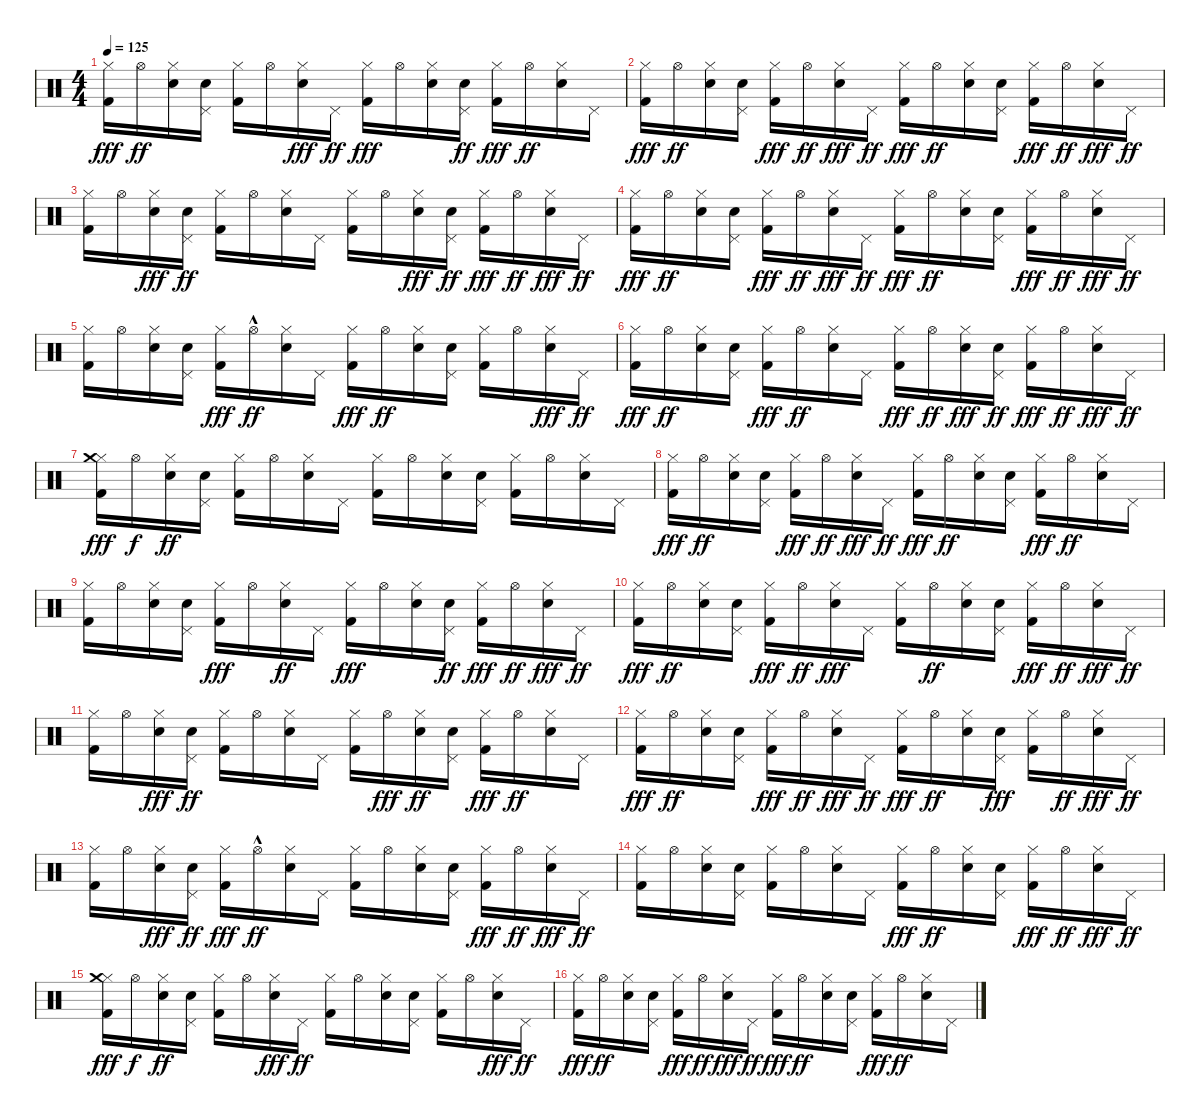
\track "" {instrument percussion}
\staff {score}
\articulation defaults
\ts (4 4)
\tempo 125
\clef neutral
\ks c
("Hi-Hat (closed)" "Kick (hit) 2").16{dy fff} "Hi-Hat (open)".16{dy ff} ("Hi-Hat (closed)" "Electric Snare (hit)").16 ("Electric Snare (hit)" "Pedal Hi-Hat (hit)").16 ("Kick (hit) 2" "Hi-Hat (closed)").16 "Hi-Hat (open)".16 ("Hi-Hat (closed)" "Electric Snare (hit)").16{dy fff} "Pedal Hi-Hat (hit)".16{dy ff} ("Kick (hit) 2" "Hi-Hat (closed)").16{dy fff} "Hi-Hat (open)".16 ("Hi-Hat (closed)" "Electric Snare (hit)").16 ("Pedal Hi-Hat (hit)" "Electric Snare (hit)").16{dy ff} ("Hi-Hat (closed)" "Kick (hit) 2").16{dy fff} "Hi-Hat (open)".16{dy ff} ("Electric Snare (hit)" "Hi-Hat (closed)").16 "Pedal Hi-Hat (hit)".16 |
("Hi-Hat (closed)" "Kick (hit) 2").16{dy fff} "Hi-Hat (open)".16{dy ff} ("Hi-Hat (closed)" "Electric Snare (hit)").16 ("Pedal Hi-Hat (hit)" "Electric Snare (hit)").16 ("Kick (hit) 2" "Hi-Hat (closed)").16{dy fff} "Hi-Hat (open)".16{dy ff} ("Hi-Hat (closed)" "Electric Snare (hit)").16{dy fff} "Pedal Hi-Hat (hit)".16{dy ff} ("Hi-Hat (closed)" "Kick (hit) 2").16{dy fff} "Hi-Hat (open)".16{dy ff} ("Electric Snare (hit)" "Hi-Hat (closed)").16 ("Electric Snare (hit)" "Pedal Hi-Hat (hit)").16 ("Hi-Hat (closed)" "Kick (hit) 2").16{dy fff} "Hi-Hat (open)".16{dy ff} ("Electric Snare (hit)" "Hi-Hat (closed)").16{dy fff} "Pedal Hi-Hat (hit)".16{dy ff} |
("Hi-Hat (closed)" "Kick (hit) 2").16 "Hi-Hat (open)".16 ("Electric Snare (hit)" "Hi-Hat (closed)").16{dy fff} ("Pedal Hi-Hat (hit)" "Electric Snare (hit)").16{dy ff} ("Kick (hit) 2" "Hi-Hat (closed)").16 "Hi-Hat (open)".16 ("Hi-Hat (closed)" "Electric Snare (hit)").16 "Pedal Hi-Hat (hit)".16 ("Kick (hit) 2" "Hi-Hat (closed)").16 "Hi-Hat (open)".16 ("Hi-Hat (closed)" "Electric Snare (hit)").16{dy fff} ("Pedal Hi-Hat (hit)" "Electric Snare (hit)").16{dy ff} ("Hi-Hat (closed)" "Kick (hit) 2").16{dy fff} "Hi-Hat (open)".16{dy ff} ("Hi-Hat (closed)" "Electric Snare (hit)").16{dy fff} "Pedal Hi-Hat (hit)".16{dy ff} |
("Kick (hit) 2" "Hi-Hat (closed)").16{dy fff} "Hi-Hat (open)".16{dy ff} ("Hi-Hat (closed)" "Electric Snare (hit)").16 ("Pedal Hi-Hat (hit)" "Electric Snare (hit)").16 ("Hi-Hat (closed)" "Kick (hit) 2").16{dy fff} "Hi-Hat (open)".16{dy ff} ("Electric Snare (hit)" "Hi-Hat (closed)").16{dy fff} "Pedal Hi-Hat (hit)".16{dy ff} ("Hi-Hat (closed)" "Kick (hit) 2").16{dy fff} "Hi-Hat (open)".16{dy ff} ("Electric Snare (hit)" "Hi-Hat (closed)").16 ("Pedal Hi-Hat (hit)" "Electric Snare (hit)").16 ("Hi-Hat (closed)" "Kick (hit) 2").16{dy fff} "Hi-Hat (open)".16{dy ff} ("Hi-Hat (closed)" "Electric Snare (hit)").16{dy fff} "Pedal Hi-Hat (hit)".16{dy ff} |
("Kick (hit) 2" "Hi-Hat (closed)").16 "Hi-Hat (open)".16 ("Electric Snare (hit)" "Hi-Hat (closed)").16 ("Electric Snare (hit)" "Pedal Hi-Hat (hit)").16 ("Kick (hit) 2" "Hi-Hat (closed)").16{dy fff} "Hi-Hat (open)"{hac}.16{dy ff} ("Electric Snare (hit)" "Hi-Hat (closed)").16 "Pedal Hi-Hat (hit)".16 ("Hi-Hat (closed)" "Kick (hit) 2").16{dy fff} "Hi-Hat (open)".16{dy ff} ("Electric Snare (hit)" "Hi-Hat (closed)").16 ("Electric Snare (hit)" "Pedal Hi-Hat (hit)").16 ("Kick (hit) 2" "Hi-Hat (closed)").16 "Hi-Hat (open)".16 ("Hi-Hat (closed)" "Electric Snare (hit)").16{dy fff} "Pedal Hi-Hat (hit)".16{dy ff} |
("Hi-Hat (closed)" "Kick (hit) 2").16{dy fff} "Hi-Hat (open)".16{dy ff} ("Hi-Hat (closed)" "Electric Snare (hit)").16 ("Electric Snare (hit)" "Pedal Hi-Hat (hit)").16 ("Hi-Hat (closed)" "Kick (hit) 2").16{dy fff} "Hi-Hat (open)".16{dy ff} ("Electric Snare (hit)" "Hi-Hat (closed)").16 "Pedal Hi-Hat (hit)".16 ("Hi-Hat (closed)" "Kick (hit) 2").16{dy fff} "Hi-Hat (open)".16{dy ff} ("Hi-Hat (closed)" "Electric Snare (hit)").16{dy fff} ("Pedal Hi-Hat (hit)" "Electric Snare (hit)").16{dy ff} ("Hi-Hat (closed)" "Kick (hit) 2").16{dy fff} "Hi-Hat (open)".16{dy ff} ("Hi-Hat (closed)" "Electric Snare (hit)").16{dy fff} "Pedal Hi-Hat (hit)".16{dy ff} |
("Hi-Hat (closed)" "Kick (hit) 2" "Crash medium (hit)").16{dy fff} "Hi-Hat (open)".16{dy f} ("Electric Snare (hit)" "Hi-Hat (closed)").16{dy ff} ("Electric Snare (hit)" "Pedal Hi-Hat (hit)").16 ("Hi-Hat (closed)" "Kick (hit) 2").16 "Hi-Hat (open)".16 ("Hi-Hat (closed)" "Electric Snare (hit)").16 "Pedal Hi-Hat (hit)".16 ("Kick (hit) 2" "Hi-Hat (closed)").16 "Hi-Hat (open)".16 ("Hi-Hat (closed)" "Electric Snare (hit)").16 ("Electric Snare (hit)" "Pedal Hi-Hat (hit)").16 ("Hi-Hat (closed)" "Kick (hit) 2").16 "Hi-Hat (open)".16 ("Hi-Hat (closed)" "Electric Snare (hit)").16 "Pedal Hi-Hat (hit)".16 |
("Kick (hit) 2" "Hi-Hat (closed)").16{dy fff} "Hi-Hat (open)".16{dy ff} ("Electric Snare (hit)" "Hi-Hat (closed)").16 ("Pedal Hi-Hat (hit)" "Electric Snare (hit)").16 ("Hi-Hat (closed)" "Kick (hit) 2").16{dy fff} "Hi-Hat (open)".16{dy ff} ("Hi-Hat (closed)" "Electric Snare (hit)").16{dy fff} "Pedal Hi-Hat (hit)".16{dy ff} ("Hi-Hat (closed)" "Kick (hit) 2").16{dy fff} "Hi-Hat (open)".16{dy ff} ("Hi-Hat (closed)" "Electric Snare (hit)").16 ("Electric Snare (hit)" "Pedal Hi-Hat (hit)").16 ("Kick (hit) 2" "Hi-Hat (closed)").16{dy fff} "Hi-Hat (open)".16{dy ff} ("Hi-Hat (closed)" "Electric Snare (hit)").16 "Pedal Hi-Hat (hit)".16 |
("Kick (hit) 2" "Hi-Hat (closed)").16 "Hi-Hat (open)".16 ("Hi-Hat (closed)" "Electric Snare (hit)").16 ("Pedal Hi-Hat (hit)" "Electric Snare (hit)").16 ("Kick (hit) 2" "Hi-Hat (closed)").16{dy fff} "Hi-Hat (open)".16 ("Electric Snare (hit)" "Hi-Hat (closed)").16{dy ff} "Pedal Hi-Hat (hit)".16 ("Kick (hit) 2" "Hi-Hat (closed)").16{dy fff} "Hi-Hat (open)".16 ("Hi-Hat (closed)" "Electric Snare (hit)").16 ("Electric Snare (hit)" "Pedal Hi-Hat (hit)").16{dy ff} ("Kick (hit) 2" "Hi-Hat (closed)").16{dy fff} "Hi-Hat (open)".16{dy ff} ("Hi-Hat (closed)" "Electric Snare (hit)").16{dy fff} "Pedal Hi-Hat (hit)".16{dy ff} |
("Hi-Hat (closed)" "Kick (hit) 2").16{dy fff} "Hi-Hat (open)".16{dy ff} ("Hi-Hat (closed)" "Electric Snare (hit)").16 ("Electric Snare (hit)" "Pedal Hi-Hat (hit)").16 ("Hi-Hat (closed)" "Kick (hit) 2").16{dy fff} "Hi-Hat (open)".16{dy ff} ("Hi-Hat (closed)" "Electric Snare (hit)").16{dy fff} "Pedal Hi-Hat (hit)".16 ("Hi-Hat (closed)" "Kick (hit) 2").16 "Hi-Hat (open)".16{dy ff} ("Hi-Hat (closed)" "Electric Snare (hit)").16 ("Pedal Hi-Hat (hit)" "Electric Snare (hit)").16 ("Kick (hit) 2" "Hi-Hat (closed)").16{dy fff} "Hi-Hat (open)".16{dy ff} ("Hi-Hat (closed)" "Electric Snare (hit)").16{dy fff} "Pedal Hi-Hat (hit)".16{dy ff} |
("Hi-Hat (closed)" "Kick (hit) 2").16 "Hi-Hat (open)".16 ("Hi-Hat (closed)" "Electric Snare (hit)").16{dy fff} ("Pedal Hi-Hat (hit)" "Electric Snare (hit)").16{dy ff} ("Kick (hit) 2" "Hi-Hat (closed)").16 "Hi-Hat (open)".16 ("Electric Snare (hit)" "Hi-Hat (closed)").16 "Pedal Hi-Hat (hit)".16 ("Kick (hit) 2" "Hi-Hat (closed)").16 "Hi-Hat (open)".16{dy fff} ("Electric Snare (hit)" "Hi-Hat (closed)").16{dy ff} ("Pedal Hi-Hat (hit)" "Electric Snare (hit)").16 ("Kick (hit) 2" "Hi-Hat (closed)").16{dy fff} "Hi-Hat (open)".16{dy ff} ("Electric Snare (hit)" "Hi-Hat (closed)").16 "Pedal Hi-Hat (hit)".16 |
("Hi-Hat (closed)" "Kick (hit) 2").16{dy fff} "Hi-Hat (open)".16{dy ff} ("Hi-Hat (closed)" "Electric Snare (hit)").16 ("Pedal Hi-Hat (hit)" "Electric Snare (hit)").16 ("Hi-Hat (closed)" "Kick (hit) 2").16{dy fff} "Hi-Hat (open)".16{dy ff} ("Electric Snare (hit)" "Hi-Hat (closed)").16{dy fff} "Pedal Hi-Hat (hit)".16{dy ff} ("Hi-Hat (closed)" "Kick (hit) 2").16{dy fff} "Hi-Hat (open)".16{dy ff} ("Hi-Hat (closed)" "Electric Snare (hit)").16 ("Electric Snare (hit)" "Pedal Hi-Hat (hit)").16{dy fff} ("Hi-Hat (closed)" "Kick (hit) 2").16 "Hi-Hat (open)".16{dy ff} ("Hi-Hat (closed)" "Electric Snare (hit)").16{dy fff} "Pedal Hi-Hat (hit)".16{dy ff} |
("Kick (hit) 2" "Hi-Hat (closed)").16 "Hi-Hat (open)".16 ("Hi-Hat (closed)" "Electric Snare (hit)").16{dy fff} ("Pedal Hi-Hat (hit)" "Electric Snare (hit)").16{dy ff} ("Kick (hit) 2" "Hi-Hat (closed)").16{dy fff} "Hi-Hat (open)"{hac}.16{dy ff} ("Electric Snare (hit)" "Hi-Hat (closed)").16 "Pedal Hi-Hat (hit)".16 ("Kick (hit) 2" "Hi-Hat (closed)").16 "Hi-Hat (open)".16 ("Electric Snare (hit)" "Hi-Hat (closed)").16 ("Electric Snare (hit)" "Pedal Hi-Hat (hit)").16 ("Hi-Hat (closed)" "Kick (hit) 2").16{dy fff} "Hi-Hat (open)".16{dy ff} ("Hi-Hat (closed)" "Electric Snare (hit)").16{dy fff} "Pedal Hi-Hat (hit)".16{dy ff} |
("Kick (hit) 2" "Hi-Hat (closed)").16 "Hi-Hat (open)".16 ("Electric Snare (hit)" "Hi-Hat (closed)").16 ("Electric Snare (hit)" "Pedal Hi-Hat (hit)").16 ("Kick (hit) 2" "Hi-Hat (closed)").16 "Hi-Hat (open)".16 ("Electric Snare (hit)" "Hi-Hat (closed)").16 "Pedal Hi-Hat (hit)".16 ("Kick (hit) 2" "Hi-Hat (closed)").16{dy fff} "Hi-Hat (open)".16{dy ff} ("Electric Snare (hit)" "Hi-Hat (closed)").16 ("Electric Snare (hit)" "Pedal Hi-Hat (hit)").16 ("Hi-Hat (closed)" "Kick (hit) 2").16{dy fff} "Hi-Hat (open)".16{dy ff} ("Hi-Hat (closed)" "Electric Snare (hit)").16{dy fff} "Pedal Hi-Hat (hit)".16{dy ff} |
("Kick (hit) 2" "Hi-Hat (closed)" "Crash medium (hit)").16{dy fff} "Hi-Hat (open)".16{dy f} ("Electric Snare (hit)" "Hi-Hat (closed)").16{dy ff} ("Pedal Hi-Hat (hit)" "Electric Snare (hit)").16 ("Hi-Hat (closed)" "Kick (hit) 2").16 "Hi-Hat (open)".16 ("Electric Snare (hit)" "Hi-Hat (closed)").16{dy fff} "Pedal Hi-Hat (hit)".16{dy ff} ("Kick (hit) 2" "Hi-Hat (closed)").16 "Hi-Hat (open)".16 ("Electric Snare (hit)" "Hi-Hat (closed)").16 ("Pedal Hi-Hat (hit)" "Electric Snare (hit)").16 ("Hi-Hat (closed)" "Kick (hit) 2").16 "Hi-Hat (open)".16 ("Electric Snare (hit)" "Hi-Hat (closed)").16{dy fff} "Pedal Hi-Hat (hit)".16{dy ff} |
("Hi-Hat (closed)" "Kick (hit) 2").16{dy fff} "Hi-Hat (open)".16{dy ff} ("Hi-Hat (closed)" "Electric Snare (hit)").16 ("Pedal Hi-Hat (hit)" "Electric Snare (hit)").16 ("Hi-Hat (closed)" "Kick (hit) 2").16{dy fff} "Hi-Hat (open)".16{dy ff} ("Electric Snare (hit)" "Hi-Hat (closed)").16{dy fff} "Pedal Hi-Hat (hit)".16{dy ff} ("Hi-Hat (closed)" "Kick (hit) 2").16{dy fff} "Hi-Hat (open)".16{dy ff} ("Hi-Hat (closed)" "Electric Snare (hit)").16 ("Electric Snare (hit)" "Pedal Hi-Hat (hit)").16 ("Hi-Hat (closed)" "Kick (hit) 2").16{dy fff} "Hi-Hat (open)".16{dy ff} ("Electric Snare (hit)" "Hi-Hat (closed)").16 "Pedal Hi-Hat (hit)".16
